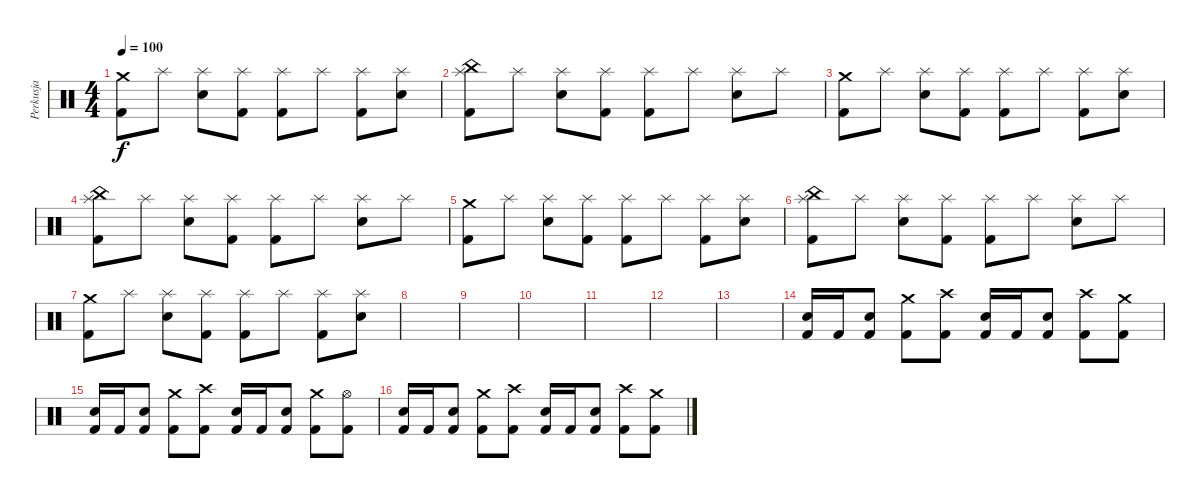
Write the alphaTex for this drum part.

\track ("Perkusja" "Perkusja") {instrument percussion}
\staff {score}
\articulation defaults
\ts (4 4)
\tempo 100
\clef neutral
\ks c
("Crash medium (hit)" "Kick (hit) 2").8{dy f} "Splash (hit)".8 ("Splash (hit)" "Electric Snare (hit)").8 ("Splash (hit)" "Kick (hit) 2").8 ("Splash (hit)" "Kick (hit) 2").8 "Splash (hit)".8 ("Splash (hit)" "Kick (hit) 2").8 ("Splash (hit)" "Electric Snare (hit)").8 |
("China (hit)" "Splash (hit)" "Kick (hit) 2").8 "Splash (hit)".8 ("Splash (hit)" "Electric Snare (hit)").8 ("Splash (hit)" "Kick (hit) 2").8 ("Splash (hit)" "Kick (hit) 2").8 "Splash (hit)".8 ("Splash (hit)" "Electric Snare (hit)").8 "Splash (hit)".8 |
("Crash medium (hit)" "Kick (hit) 2").8 "Splash (hit)".8 ("Splash (hit)" "Electric Snare (hit)").8 ("Splash (hit)" "Kick (hit) 2").8 ("Splash (hit)" "Kick (hit) 2").8 "Splash (hit)".8 ("Splash (hit)" "Kick (hit) 2").8 ("Splash (hit)" "Electric Snare (hit)").8 |
("China (hit)" "Splash (hit)" "Kick (hit) 2").8 "Splash (hit)".8 ("Splash (hit)" "Electric Snare (hit)").8 ("Splash (hit)" "Kick (hit) 2").8 ("Splash (hit)" "Kick (hit) 2").8 "Splash (hit)".8 ("Splash (hit)" "Electric Snare (hit)").8 "Splash (hit)".8 |
("Crash medium (hit)" "Kick (hit) 2").8 "Splash (hit)".8 ("Splash (hit)" "Electric Snare (hit)").8 ("Splash (hit)" "Kick (hit) 2").8 ("Splash (hit)" "Kick (hit) 2").8 "Splash (hit)".8 ("Splash (hit)" "Kick (hit) 2").8 ("Splash (hit)" "Electric Snare (hit)").8 |
("China (hit)" "Splash (hit)" "Kick (hit) 2").8 "Splash (hit)".8 ("Splash (hit)" "Electric Snare (hit)").8 ("Splash (hit)" "Kick (hit) 2").8 ("Splash (hit)" "Kick (hit) 2").8 "Splash (hit)".8 ("Splash (hit)" "Electric Snare (hit)").8 "Splash (hit)".8 |
("Crash medium (hit)" "Kick (hit) 2").8 "Splash (hit)".8 ("Splash (hit)" "Electric Snare (hit)").8 ("Splash (hit)" "Kick (hit) 2").8 ("Splash (hit)" "Kick (hit) 2").8 "Splash (hit)".8 ("Splash (hit)" "Kick (hit) 2").8 ("Splash (hit)" "Electric Snare (hit)").8 |
|
|
|
|
|
|
("Electric Snare (hit)" "Kick (hit) 2").16 "Kick (hit) 2".16 ("Electric Snare (hit)" "Kick (hit) 2").8 ("Crash medium (hit)" "Kick (hit) 2").8 ("Crash high (hit)" "Kick (hit) 2").8 ("Electric Snare (hit)" "Kick (hit) 2").16 "Kick (hit) 2".16 ("Electric Snare (hit)" "Kick (hit) 2").8 ("Crash high (hit)" "Kick (hit) 2").8 ("Crash medium (hit)" "Kick (hit) 2").8 |
("Electric Snare (hit)" "Kick (hit) 2").16 "Kick (hit) 2".16 ("Electric Snare (hit)" "Kick (hit) 2").8 ("Crash medium (hit)" "Kick (hit) 2").8 ("Crash high (hit)" "Kick (hit) 2").8 ("Electric Snare (hit)" "Kick (hit) 2").16 "Kick (hit) 2".16 ("Electric Snare (hit)" "Kick (hit) 2").8 ("Crash medium (hit)" "Kick (hit) 2").8 ("Hi-Hat (open)" "Kick (hit) 2").8 |
("Electric Snare (hit)" "Kick (hit) 2").16 "Kick (hit) 2".16 ("Electric Snare (hit)" "Kick (hit) 2").8 ("Crash medium (hit)" "Kick (hit) 2").8 ("Crash high (hit)" "Kick (hit) 2").8 ("Electric Snare (hit)" "Kick (hit) 2").16 "Kick (hit) 2".16 ("Electric Snare (hit)" "Kick (hit) 2").8 ("Crash high (hit)" "Kick (hit) 2").8 ("Crash medium (hit)" "Kick (hit) 2").8
